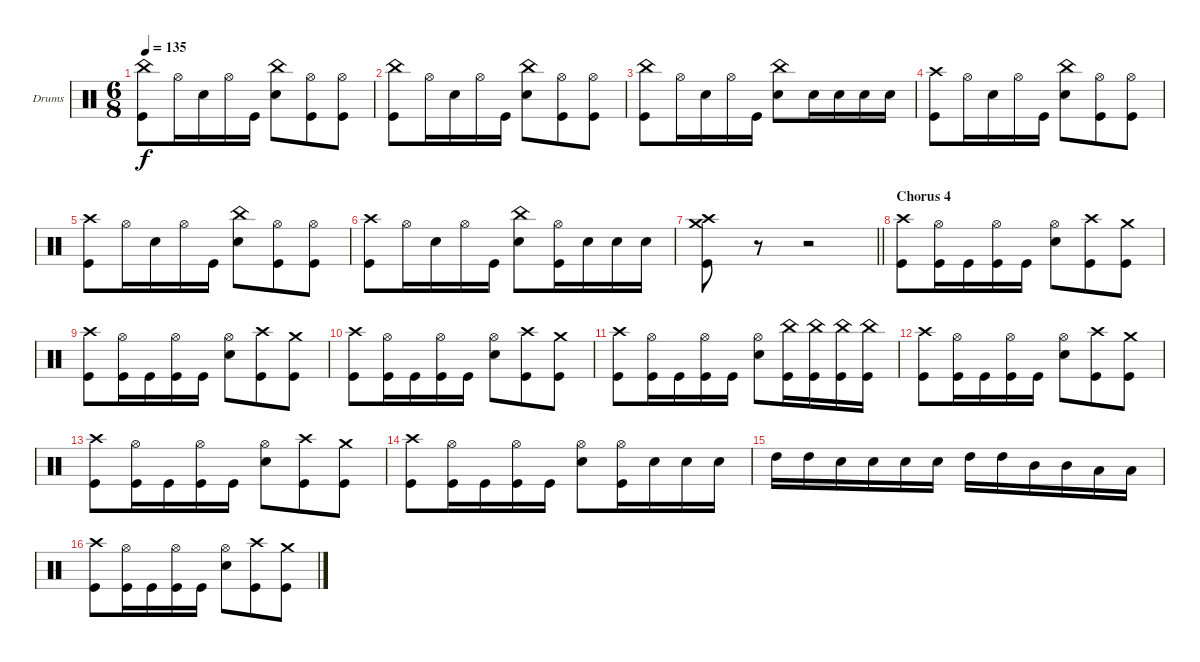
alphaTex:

\bracketExtendMode groupsimilarinstruments
\firstSystemTrackNameOrientation horizontal
\otherSystemsTrackNameOrientation horizontal
\track ("drums (Anton Zulganov)" "Drums") {instrument percussion}
\staff {score}
\articulation defaults
\ts (6 8)
\tempo 135
\clef neutral
\ks aminor
("Kick (hit)" "China (hit)").8{dy f} "Hi-Hat (open)".16 "Snare (hit) 2".16 "Hi-Hat (open)".16 "Kick (hit)".16 ("Snare (hit) 2" "China (hit)").8 ("Kick (hit)" "Hi-Hat (open)").8 ("Kick (hit)" "Hi-Hat (open)").8 |
("Kick (hit)" "China (hit)").8 "Hi-Hat (open)".16 "Snare (hit) 2".16 "Hi-Hat (open)".16 "Kick (hit)".16 ("Snare (hit) 2" "China (hit)").8 ("Kick (hit)" "Hi-Hat (open)").8 ("Kick (hit)" "Hi-Hat (open)").8 |
("Kick (hit)" "China (hit)").8 "Hi-Hat (open)".16 "Snare (hit) 2".16 "Hi-Hat (open)".16 "Kick (hit)".16 ("Snare (hit) 2" "China (hit)").8 "Snare (hit) 2".16 "Snare (hit) 2".16 "Snare (hit) 2".16 "Snare (hit) 2".16 |
("Kick (hit)" "Crash high (hit)").8 "Hi-Hat (open)".16 "Snare (hit) 2".16 "Hi-Hat (open)".16 "Kick (hit)".16 ("Snare (hit) 2" "China (hit)").8 ("Kick (hit)" "Hi-Hat (open)").8 ("Kick (hit)" "Hi-Hat (open)").8 |
("Kick (hit)" "Crash high (hit)").8 "Hi-Hat (open)".16 "Snare (hit) 2".16 "Hi-Hat (open)".16 "Kick (hit)".16 ("Snare (hit) 2" "China (hit)").8 ("Kick (hit)" "Hi-Hat (open)").8 ("Kick (hit)" "Hi-Hat (open)").8 |
("Kick (hit)" "Crash high (hit)").8 "Hi-Hat (open)".16 "Snare (hit) 2".16 "Hi-Hat (open)".16 "Kick (hit)".16 ("Snare (hit) 2" "China (hit)").8 ("Kick (hit)" "Hi-Hat (open)").16 "Snare (hit) 2".16 "Snare (hit) 2".16 "Snare (hit) 2".16 |
\barLineRight lightlight
("Crash medium (hit)" "Crash high (hit)" "Kick (hit)").8 r.8 r.2 |
\section ("" "Chorus 4")
("Kick (hit)" "Crash high (hit)").8 ("Kick (hit)" "Hi-Hat (open)").16 "Kick (hit)".16 ("Kick (hit)" "Hi-Hat (open)").16 "Kick (hit)".16 ("Snare (hit) 2" "Hi-Hat (open)").8 ("Kick (hit)" "Crash high (hit)").8 ("Kick (hit)" "Crash medium (hit)").8 |
("Kick (hit)" "Crash high (hit)").8 ("Kick (hit)" "Hi-Hat (open)").16 "Kick (hit)".16 ("Kick (hit)" "Hi-Hat (open)").16 "Kick (hit)".16 ("Snare (hit) 2" "Hi-Hat (open)").8 ("Kick (hit)" "Crash high (hit)").8 ("Kick (hit)" "Crash medium (hit)").8 |
("Kick (hit)" "Crash high (hit)").8 ("Kick (hit)" "Hi-Hat (open)").16 "Kick (hit)".16 ("Kick (hit)" "Hi-Hat (open)").16 "Kick (hit)".16 ("Snare (hit) 2" "Hi-Hat (open)").8 ("Kick (hit)" "Crash high (hit)").8 ("Kick (hit)" "Crash medium (hit)").8 |
("Kick (hit)" "Crash high (hit)").8 ("Kick (hit)" "Hi-Hat (open)").16 "Kick (hit)".16 ("Hi-Hat (open)" "Kick (hit)").16 "Kick (hit)".16 ("Snare (hit) 2" "Hi-Hat (open)").8 ("Kick (hit)" "China (hit)").16 ("Kick (hit)" "China (hit)").16 ("Kick (hit)" "China (hit)").16 ("Kick (hit)" "China (hit)").16 |
("Kick (hit)" "Crash high (hit)").8 ("Kick (hit)" "Hi-Hat (open)").16 "Kick (hit)".16 ("Kick (hit)" "Hi-Hat (open)").16 "Kick (hit)".16 ("Snare (hit) 2" "Hi-Hat (open)").8 ("Kick (hit)" "Crash high (hit)").8 ("Kick (hit)" "Crash medium (hit)").8 |
("Kick (hit)" "Crash high (hit)").8 ("Kick (hit)" "Hi-Hat (open)").16 "Kick (hit)".16 ("Kick (hit)" "Hi-Hat (open)").16 "Kick (hit)".16 ("Snare (hit) 2" "Hi-Hat (open)").8 ("Kick (hit)" "Crash high (hit)").8 ("Kick (hit)" "Crash medium (hit)").8 |
("Kick (hit)" "Crash high (hit)").8 ("Kick (hit)" "Hi-Hat (open)").16 "Kick (hit)".16 ("Kick (hit)" "Hi-Hat (open)").16 "Kick (hit)".16 ("Snare (hit) 2" "Hi-Hat (open)").8 ("Kick (hit)" "Hi-Hat (open)").16 "Snare (hit) 2".16 "Snare (hit) 2".16 "Snare (hit) 2".16 |
"High Tom (hit)".16 "High Tom (hit)".16 "Snare (hit) 2".16 "Snare (hit) 2".16 "Snare (hit) 2".16 "Snare (hit) 2".16 "High Tom (hit)".16 "High Tom (hit)".16 "Mid Tom (hit)".16 "Mid Tom (hit)".16 "Low Tom (hit)".16 "Low Tom (hit)".16 |
("Kick (hit)" "Crash high (hit)").8 ("Kick (hit)" "Hi-Hat (open)").16 "Kick (hit)".16 ("Kick (hit)" "Hi-Hat (open)").16 "Kick (hit)".16 ("Snare (hit) 2" "Hi-Hat (open)").8 ("Kick (hit)" "Crash high (hit)").8 ("Kick (hit)" "Crash medium (hit)").8
